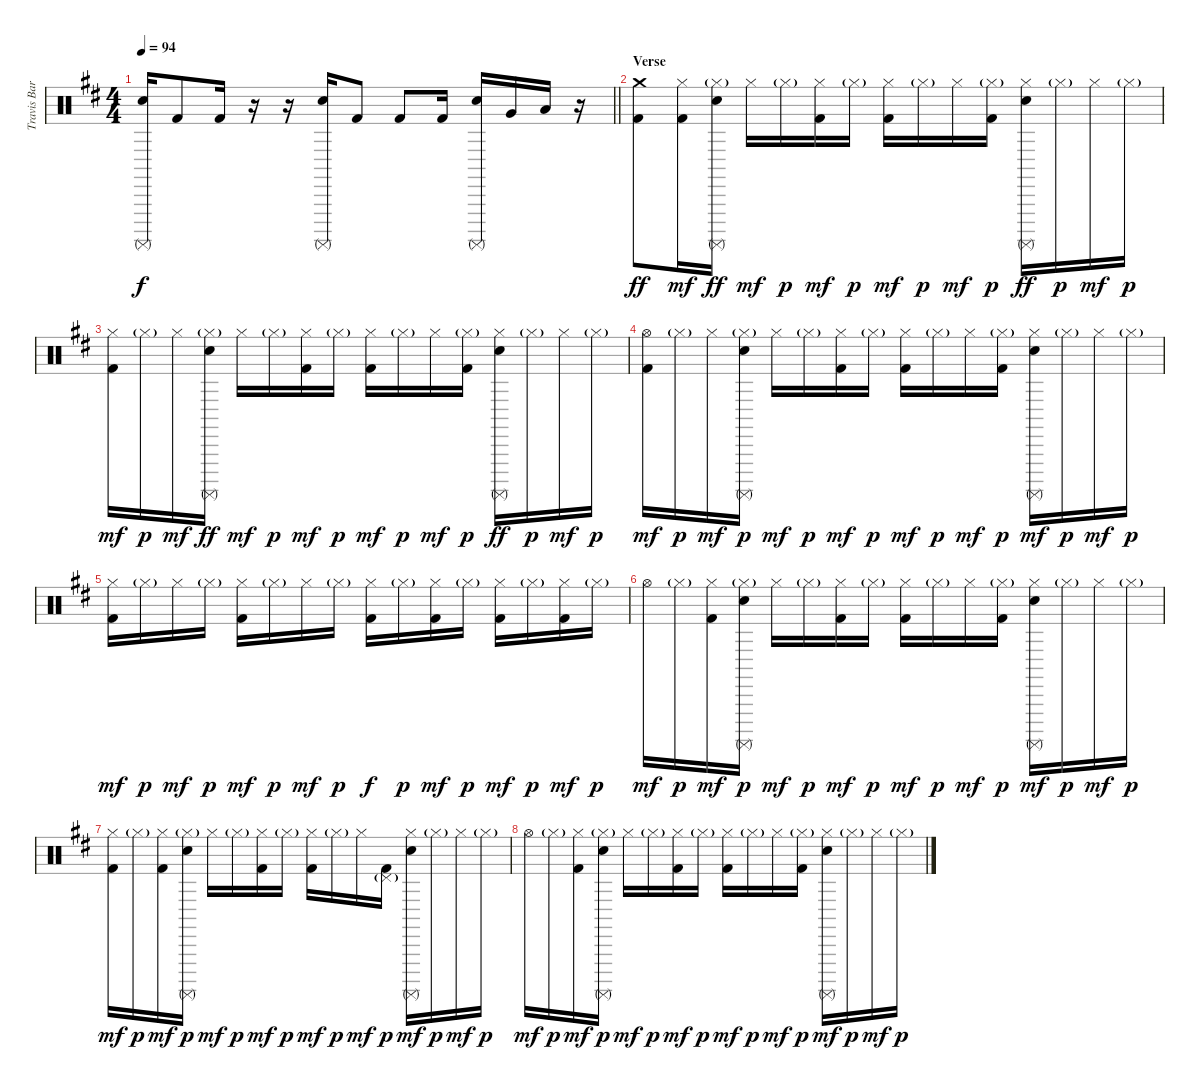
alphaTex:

\track ("Travis Barker" "Travis Bar") {instrument percussion}
\staff {score}
\articulation defaults
\ts (4 4)
\tempo 94
\clef neutral
\barLineRight lightlight
\ks d
("Electric Snare (hit)" "Surdo (mute)").16{dy f} "Kick (hit) 2".8 "Kick (hit) 2".16 r.16 r.16 ("Electric Snare (hit)" "Surdo (mute)").16 "Kick (hit) 2".8 "Kick (hit) 2".8 "Kick (hit) 2".16 ("Electric Snare (hit)" "Surdo (mute)").16 "Very Low Tom (hit)".16 "Low Floor Tom (hit)".16 r.16 |
\section ("" "Verse")
("Crash medium (hit)" "Kick (hit) 2").8{dy ff} ("Hi-Hat (closed)" "Kick (hit) 2").16{dy mf} ("Hi-Hat (closed)"{g} "Electric Snare (hit)" "Surdo (mute)").16{dy ff} "Hi-Hat (closed)".16{dy mf} "Hi-Hat (closed)"{g}.16{dy p} ("Hi-Hat (closed)" "Kick (hit) 2").16{dy mf} "Hi-Hat (closed)"{g}.16{dy p} ("Hi-Hat (closed)" "Kick (hit) 2").16{dy mf} "Hi-Hat (closed)"{g}.16{dy p} "Hi-Hat (closed)".16{dy mf} ("Hi-Hat (closed)"{g} "Kick (hit) 2").16{dy p} ("Hi-Hat (closed)" "Electric Snare (hit)" "Surdo (mute)").16{dy ff} "Hi-Hat (closed)"{g}.16{dy p} "Hi-Hat (closed)".16{dy mf} "Hi-Hat (closed)"{g}.16{dy p} |
("Hi-Hat (closed)" "Kick (hit) 2").16{dy mf} "Hi-Hat (closed)"{g}.16{dy p} "Hi-Hat (closed)".16{dy mf} ("Hi-Hat (closed)"{g} "Electric Snare (hit)" "Surdo (mute)").16{dy ff} "Hi-Hat (closed)".16{dy mf} "Hi-Hat (closed)"{g}.16{dy p} ("Hi-Hat (closed)" "Kick (hit) 2").16{dy mf} "Hi-Hat (closed)"{g}.16{dy p} ("Hi-Hat (closed)" "Kick (hit) 2").16{dy mf} "Hi-Hat (closed)"{g}.16{dy p} "Hi-Hat (closed)".16{dy mf} ("Hi-Hat (closed)"{g} "Kick (hit) 2").16{dy p} ("Hi-Hat (closed)" "Electric Snare (hit)" "Surdo (mute)").16{dy ff} "Hi-Hat (closed)"{g}.16{dy p} "Hi-Hat (closed)".16{dy mf} "Hi-Hat (closed)"{g}.16{dy p} |
("Hi-Hat (open)" "Kick (hit) 2").16{dy mf} "Hi-Hat (closed)"{g}.16{dy p} "Hi-Hat (closed)".16{dy mf} ("Hi-Hat (closed)"{g} "Electric Snare (hit)" "Surdo (mute)").16{dy p} "Hi-Hat (closed)".16{dy mf} "Hi-Hat (closed)"{g}.16{dy p} ("Hi-Hat (closed)" "Kick (hit) 2").16{dy mf} "Hi-Hat (closed)"{g}.16{dy p} ("Hi-Hat (closed)" "Kick (hit) 2").16{dy mf} "Hi-Hat (closed)"{g}.16{dy p} "Hi-Hat (closed)".16{dy mf} ("Hi-Hat (closed)"{g} "Kick (hit) 2").16{dy p} ("Hi-Hat (closed)" "Electric Snare (hit)" "Surdo (mute)").16{dy mf} "Hi-Hat (closed)"{g}.16{dy p} "Hi-Hat (closed)".16{dy mf} "Hi-Hat (closed)"{g}.16{dy p} |
("Hi-Hat (closed)" "Kick (hit) 2").16{dy mf} "Hi-Hat (closed)"{g}.16{dy p} "Hi-Hat (closed)".16{dy mf} "Hi-Hat (closed)"{g}.16{dy p} ("Hi-Hat (closed)" "Kick (hit) 2").16{dy mf} "Hi-Hat (closed)"{g}.16{dy p} "Hi-Hat (closed)".16{dy mf} "Hi-Hat (closed)"{g}.16{dy p} ("Hi-Hat (closed)" "Kick (hit) 2").16{dy f} "Hi-Hat (closed)"{g}.16{dy p} ("Hi-Hat (closed)" "Kick (hit) 2").16{dy mf} "Hi-Hat (closed)"{g}.16{dy p} ("Hi-Hat (closed)" "Kick (hit) 2").16{dy mf} "Hi-Hat (closed)"{g}.16{dy p} ("Hi-Hat (closed)" "Kick (hit) 2").16{dy mf} "Hi-Hat (closed)"{g}.16{dy p} |
"Hi-Hat (open)".16{dy mf} "Hi-Hat (closed)"{g}.16{dy p} ("Hi-Hat (closed)" "Kick (hit) 2").16{dy mf} ("Hi-Hat (closed)"{g} "Electric Snare (hit)" "Surdo (mute)").16{dy p} "Hi-Hat (closed)".16{dy mf} "Hi-Hat (closed)"{g}.16{dy p} ("Hi-Hat (closed)" "Kick (hit) 2").16{dy mf} "Hi-Hat (closed)"{g}.16{dy p} ("Hi-Hat (closed)" "Kick (hit) 2").16{dy mf} "Hi-Hat (closed)"{g}.16{dy p} "Hi-Hat (closed)".16{dy mf} ("Hi-Hat (closed)"{g} "Kick (hit) 2").16{dy p} ("Hi-Hat (closed)" "Electric Snare (hit)" "Surdo (mute)").16{dy mf} "Hi-Hat (closed)"{g}.16{dy p} "Hi-Hat (closed)".16{dy mf} "Hi-Hat (closed)"{g}.16{dy p} |
("Hi-Hat (closed)" "Kick (hit) 2").16{dy mf} "Hi-Hat (closed)"{g}.16{dy p} ("Hi-Hat (closed)" "Kick (hit) 2").16{dy mf} ("Hi-Hat (closed)"{g} "Electric Snare (hit)" "Surdo (mute)").16{dy p} "Hi-Hat (closed)".16{dy mf} "Hi-Hat (closed)"{g}.16{dy p} ("Hi-Hat (closed)" "Kick (hit) 2").16{dy mf} "Hi-Hat (closed)"{g}.16{dy p} ("Hi-Hat (closed)" "Kick (hit) 2").16{dy mf} "Hi-Hat (closed)"{g}.16{dy p} "Hi-Hat (closed)".16{dy mf} ("Pedal Hi-Hat (hit)"{g} "Kick (hit) 2").16{dy p} ("Hi-Hat (closed)" "Electric Snare (hit)" "Surdo (mute)").16{dy mf} "Hi-Hat (closed)"{g}.16{dy p} "Hi-Hat (closed)".16{dy mf} "Hi-Hat (closed)"{g}.16{dy p} |
"Hi-Hat (open)".16{dy mf} "Hi-Hat (closed)"{g}.16{dy p} ("Hi-Hat (closed)" "Kick (hit) 2").16{dy mf} ("Hi-Hat (closed)"{g} "Electric Snare (hit)" "Surdo (mute)").16{dy p} "Hi-Hat (closed)".16{dy mf} "Hi-Hat (closed)"{g}.16{dy p} ("Hi-Hat (closed)" "Kick (hit) 2").16{dy mf} "Hi-Hat (closed)"{g}.16{dy p} ("Hi-Hat (closed)" "Kick (hit) 2").16{dy mf} "Hi-Hat (closed)"{g}.16{dy p} "Hi-Hat (closed)".16{dy mf} ("Hi-Hat (closed)"{g} "Kick (hit) 2").16{dy p} ("Hi-Hat (closed)" "Electric Snare (hit)" "Surdo (mute)").16{dy mf} "Hi-Hat (closed)"{g}.16{dy p} "Hi-Hat (closed)".16{dy mf} "Hi-Hat (closed)"{g}.16{dy p}
